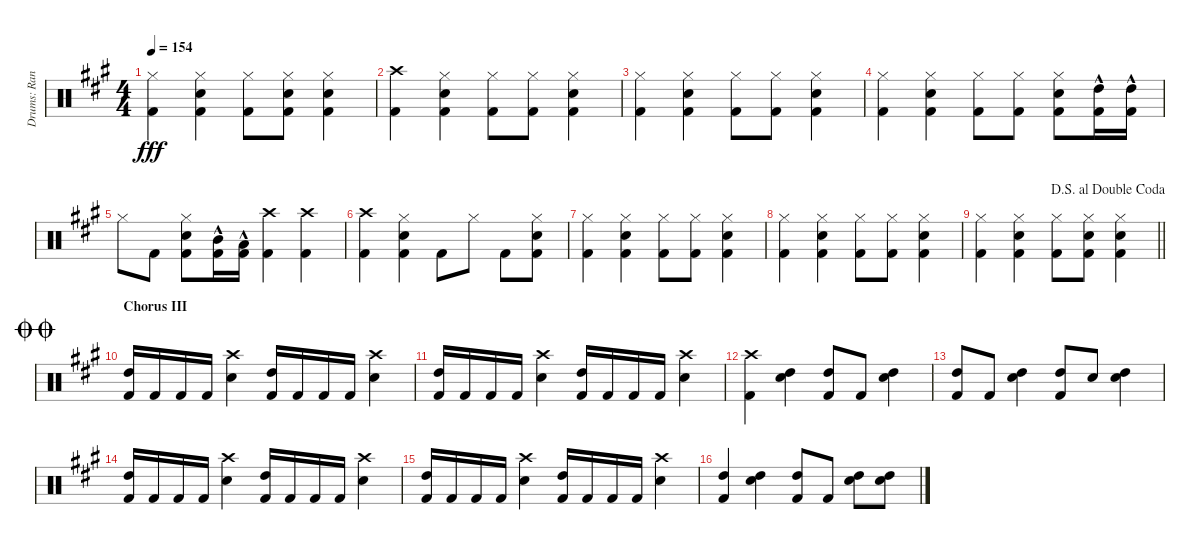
\track ("Drums: Randy" "Drums: Ran") {instrument percussion}
\staff {score}
\articulation defaults
\ts (4 4)
\tempo 154
\clef neutral
\ks a
("Hi-Hat (closed)" "Kick (hit) 2").4{dy fff} ("Hi-Hat (closed)" "Snare (hit) 2" "Kick (hit) 2").4 ("Hi-Hat (closed)" "Kick (hit) 2").8 ("Hi-Hat (closed)" "Snare (hit) 2" "Kick (hit) 2").8 ("Hi-Hat (closed)" "Snare (hit) 2" "Kick (hit) 2").4 |
("Crash high (hit)" "Kick (hit) 2").4 ("Hi-Hat (closed)" "Snare (hit) 2" "Kick (hit) 2").4 ("Hi-Hat (closed)" "Kick (hit) 2").8 ("Hi-Hat (closed)" "Kick (hit) 2").8 ("Hi-Hat (closed)" "Snare (hit) 2" "Kick (hit) 2").4 |
("Hi-Hat (closed)" "Kick (hit) 2").4 ("Hi-Hat (closed)" "Snare (hit) 2" "Kick (hit) 2").4 ("Hi-Hat (closed)" "Kick (hit) 2").8 ("Hi-Hat (closed)" "Kick (hit) 2").8 ("Hi-Hat (closed)" "Snare (hit) 2" "Kick (hit) 2").4 |
("Hi-Hat (closed)" "Kick (hit) 2").4 ("Hi-Hat (closed)" "Snare (hit) 2" "Kick (hit) 2").4 ("Hi-Hat (closed)" "Kick (hit) 2").8 ("Hi-Hat (closed)" "Kick (hit) 2").8 ("Hi-Hat (closed)" "Snare (hit) 2" "Kick (hit) 2").8 ("High Tom (hit)"{hac} "Kick (hit) 2"{hac}).16 ("High Tom (hit)"{hac} "Kick (hit) 2"{hac}).16 |
"Hi-Hat (closed)".8 "Kick (hit) 2".8 ("Hi-Hat (closed)" "Snare (hit) 2" "Kick (hit) 2").8 ("Mid Tom (hit)"{hac} "Kick (hit) 2"{hac}).16 ("Low Tom (hit)"{hac} "Kick (hit) 2"{hac}).16 ("Crash high (hit)" "Kick (hit) 2").4 ("Crash high (hit)" "Kick (hit) 2").4 |
("Crash high (hit)" "Kick (hit) 2").4 ("Hi-Hat (closed)" "Snare (hit) 2" "Kick (hit) 2").4 "Kick (hit) 2".8 "Hi-Hat (closed)".8 "Kick (hit) 2".8 ("Hi-Hat (closed)" "Snare (hit) 2" "Kick (hit) 2").8 |
("Hi-Hat (closed)" "Kick (hit) 2").4 ("Hi-Hat (closed)" "Snare (hit) 2" "Kick (hit) 2").4 ("Hi-Hat (closed)" "Kick (hit) 2").8 ("Hi-Hat (closed)" "Kick (hit) 2").8 ("Hi-Hat (closed)" "Snare (hit) 2" "Kick (hit) 2").4 |
("Hi-Hat (closed)" "Kick (hit) 2").4 ("Hi-Hat (closed)" "Snare (hit) 2" "Kick (hit) 2").4 ("Hi-Hat (closed)" "Kick (hit) 2").8 ("Hi-Hat (closed)" "Kick (hit) 2").8 ("Hi-Hat (closed)" "Snare (hit) 2" "Kick (hit) 2").4 |
\jump dalsegnoaldoublecoda
\barLineRight lightlight
("Hi-Hat (closed)" "Kick (hit) 2").4 ("Hi-Hat (closed)" "Snare (hit) 2" "Kick (hit) 2").4 ("Hi-Hat (closed)" "Kick (hit) 2").8 ("Hi-Hat (closed)" "Snare (hit) 2" "Kick (hit) 2").8 ("Hi-Hat (closed)" "Snare (hit) 2" "Kick (hit) 2").4 |
\section ("" "Chorus III")
\jump doublecoda
("High Tom (hit)" "Kick (hit) 2").16 "Kick (hit) 2".16 "Kick (hit) 2".16 "Kick (hit) 2".16 ("Crash high (hit)" "Snare (hit) 2").4 ("High Tom (hit)" "Kick (hit) 2").16 "Kick (hit) 2".16 "Kick (hit) 2".16 "Kick (hit) 2".16 ("Crash high (hit)" "Snare (hit) 2").4 |
("High Tom (hit)" "Kick (hit) 2").16 "Kick (hit) 2".16 "Kick (hit) 2".16 "Kick (hit) 2".16 ("Crash high (hit)" "Snare (hit) 2").4 ("High Tom (hit)" "Kick (hit) 2").16 "Kick (hit) 2".16 "Kick (hit) 2".16 "Kick (hit) 2".16 ("Crash high (hit)" "Snare (hit) 2").4 |
("Crash high (hit)" "Kick (hit) 2").4 ("Snare (hit) 2" "High Tom (hit)").4 ("High Tom (hit)" "Kick (hit) 2").8 "Kick (hit) 2".8 ("Snare (hit) 2" "High Tom (hit)").4 |
("High Tom (hit)" "Kick (hit) 2").8 "Kick (hit) 2".8 ("Snare (hit) 2" "High Tom (hit)").4 ("High Tom (hit)" "Kick (hit) 2").8 "Snare (hit) 2".8 ("Snare (hit) 2" "High Tom (hit)").4 |
("High Tom (hit)" "Kick (hit) 2").16 "Kick (hit) 2".16 "Kick (hit) 2".16 "Kick (hit) 2".16 ("Crash high (hit)" "Snare (hit) 2").4 ("High Tom (hit)" "Kick (hit) 2").16 "Kick (hit) 2".16 "Kick (hit) 2".16 "Kick (hit) 2".16 ("Crash high (hit)" "Snare (hit) 2").4 |
("High Tom (hit)" "Kick (hit) 2").16 "Kick (hit) 2".16 "Kick (hit) 2".16 "Kick (hit) 2".16 ("Crash high (hit)" "Snare (hit) 2").4 ("High Tom (hit)" "Kick (hit) 2").16 "Kick (hit) 2".16 "Kick (hit) 2".16 "Kick (hit) 2".16 ("Crash high (hit)" "Snare (hit) 2").4 |
("High Tom (hit)" "Kick (hit) 2").4 ("Snare (hit) 2" "High Tom (hit)").4 ("High Tom (hit)" "Kick (hit) 2").8 "Kick (hit) 2".8 ("Snare (hit) 2" "High Tom (hit)").8 ("Snare (hit) 2" "High Tom (hit)").8
